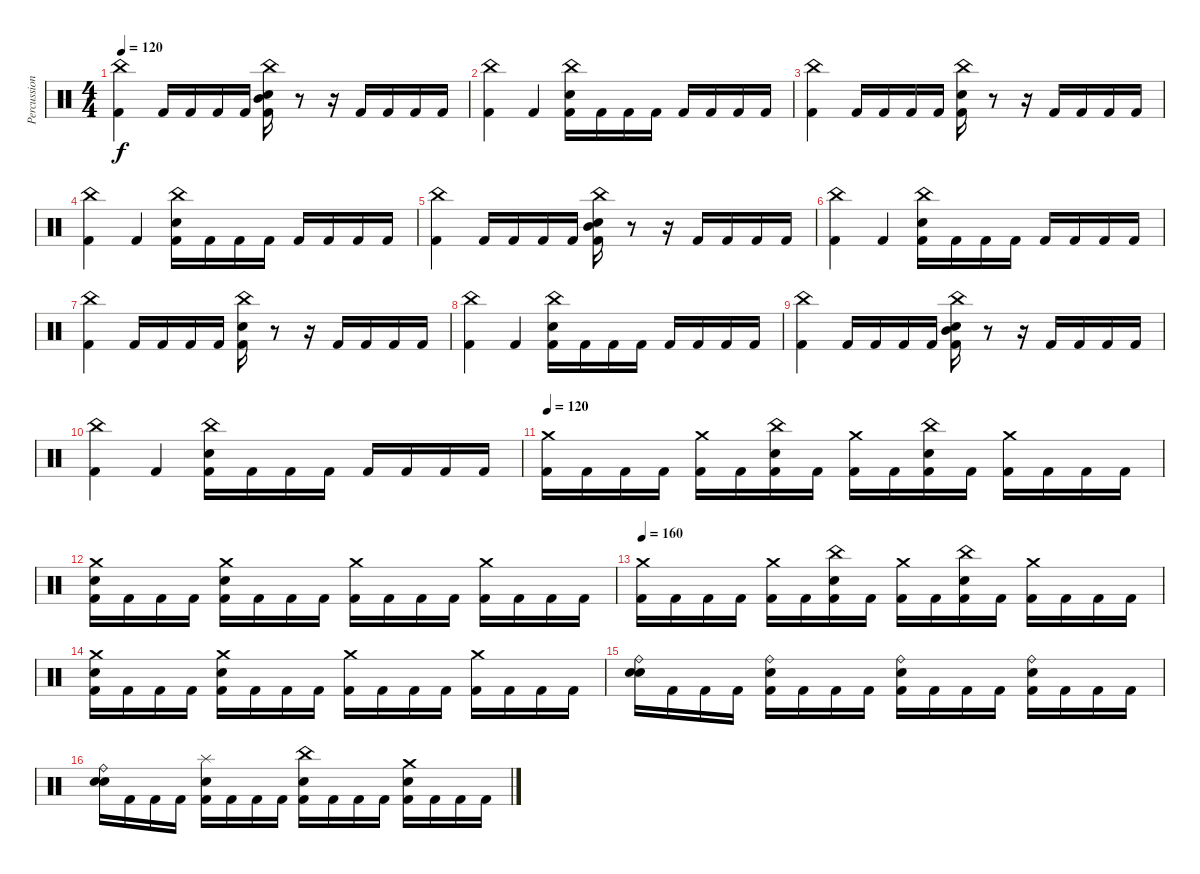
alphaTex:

\track ("Percussion" "Percussion") {instrument percussion}
\staff {score}
\articulation defaults
\ts (4 4)
\tempo 120
\clef neutral
\ks c
("China (hit)" "Kick (hit) 2").4{dy f} "Kick (hit) 2".16 "Kick (hit) 2".16 "Kick (hit) 2".16 "Kick (hit) 2".16 ("Mid Tom (hit)" "China (hit)" "Snare (hit) 2" "Kick (hit) 2").16 r.8 r.16 "Kick (hit) 2".16 "Kick (hit) 2".16 "Kick (hit) 2".16 "Kick (hit) 2".16 |
("China (hit)" "Kick (hit) 2").4 "Kick (hit) 2".4 ("China (hit)" "Snare (hit) 2" "Kick (hit) 2").16 "Kick (hit) 2".16 "Kick (hit) 2".16 "Kick (hit) 2".16 "Kick (hit) 2".16 "Kick (hit) 2".16 "Kick (hit) 2".16 "Kick (hit) 2".16 |
("China (hit)" "Kick (hit) 2").4 "Kick (hit) 2".16 "Kick (hit) 2".16 "Kick (hit) 2".16 "Kick (hit) 2".16 ("China (hit)" "Snare (hit) 2" "Kick (hit) 2").16 r.8 r.16 "Kick (hit) 2".16 "Kick (hit) 2".16 "Kick (hit) 2".16 "Kick (hit) 2".16 |
("China (hit)" "Kick (hit) 2").4 "Kick (hit) 2".4 ("China (hit)" "Snare (hit) 2" "Kick (hit) 2").16 "Kick (hit) 2".16 "Kick (hit) 2".16 "Kick (hit) 2".16 "Kick (hit) 2".16 "Kick (hit) 2".16 "Kick (hit) 2".16 "Kick (hit) 2".16 |
("China (hit)" "Kick (hit) 2").4 "Kick (hit) 2".16 "Kick (hit) 2".16 "Kick (hit) 2".16 "Kick (hit) 2".16 ("Mid Tom (hit)" "China (hit)" "Snare (hit) 2" "Kick (hit) 2").16 r.8 r.16 "Kick (hit) 2".16 "Kick (hit) 2".16 "Kick (hit) 2".16 "Kick (hit) 2".16 |
("China (hit)" "Kick (hit) 2").4 "Kick (hit) 2".4 ("China (hit)" "Snare (hit) 2" "Kick (hit) 2").16 "Kick (hit) 2".16 "Kick (hit) 2".16 "Kick (hit) 2".16 "Kick (hit) 2".16 "Kick (hit) 2".16 "Kick (hit) 2".16 "Kick (hit) 2".16 |
("China (hit)" "Kick (hit) 2").4 "Kick (hit) 2".16 "Kick (hit) 2".16 "Kick (hit) 2".16 "Kick (hit) 2".16 ("China (hit)" "Snare (hit) 2" "Kick (hit) 2").16 r.8 r.16 "Kick (hit) 2".16 "Kick (hit) 2".16 "Kick (hit) 2".16 "Kick (hit) 2".16 |
("China (hit)" "Kick (hit) 2").4 "Kick (hit) 2".4 ("China (hit)" "Snare (hit) 2" "Kick (hit) 2").16 "Kick (hit) 2".16 "Kick (hit) 2".16 "Kick (hit) 2".16 "Kick (hit) 2".16 "Kick (hit) 2".16 "Kick (hit) 2".16 "Kick (hit) 2".16 |
("China (hit)" "Kick (hit) 2").4 "Kick (hit) 2".16 "Kick (hit) 2".16 "Kick (hit) 2".16 "Kick (hit) 2".16 ("Mid Tom (hit)" "China (hit)" "Snare (hit) 2" "Kick (hit) 2").16 r.8 r.16 "Kick (hit) 2".16 "Kick (hit) 2".16 "Kick (hit) 2".16 "Kick (hit) 2".16 |
("China (hit)" "Kick (hit) 2").4 "Kick (hit) 2".4 ("China (hit)" "Snare (hit) 2" "Kick (hit) 2").16 "Kick (hit) 2".16 "Kick (hit) 2".16 "Kick (hit) 2".16 "Kick (hit) 2".16 "Kick (hit) 2".16 "Kick (hit) 2".16 "Kick (hit) 2".16 |
\tempo 160
\tempo 120
("Crash medium (hit)" "Kick (hit) 2").16 "Kick (hit) 2".16 "Kick (hit) 2".16 "Kick (hit) 2".16 ("Crash medium (hit)" "Kick (hit) 2").16 "Kick (hit) 2".16 ("China (hit)" "Snare (hit) 2" "Kick (hit) 2").16 "Kick (hit) 2".16 ("Crash medium (hit)" "Kick (hit) 2").16 "Kick (hit) 2".16 ("China (hit)" "Snare (hit) 2" "Kick (hit) 2").16 "Kick (hit) 2".16 ("Crash medium (hit)" "Kick (hit) 2").16 "Kick (hit) 2".16 "Kick (hit) 2".16 "Kick (hit) 2".16 |
("Crash medium (hit)" "Snare (hit) 2" "Kick (hit) 2").16 "Kick (hit) 2".16 "Kick (hit) 2".16 "Kick (hit) 2".16 ("Crash medium (hit)" "Snare (hit) 2" "Kick (hit) 2").16 "Kick (hit) 2".16 "Kick (hit) 2".16 "Kick (hit) 2".16 ("Crash medium (hit)" "Kick (hit) 2").16 "Kick (hit) 2".16 "Kick (hit) 2".16 "Kick (hit) 2".16 ("Crash medium (hit)" "Kick (hit) 2").16 "Kick (hit) 2".16 "Kick (hit) 2".16 "Kick (hit) 2".16 |
\tempo 160
("Crash medium (hit)" "Kick (hit) 2").16 "Kick (hit) 2".16 "Kick (hit) 2".16 "Kick (hit) 2".16 ("Crash medium (hit)" "Kick (hit) 2").16 "Kick (hit) 2".16 ("China (hit)" "Snare (hit) 2" "Kick (hit) 2").16 "Kick (hit) 2".16 ("Crash medium (hit)" "Kick (hit) 2").16 "Kick (hit) 2".16 ("China (hit)" "Snare (hit) 2" "Kick (hit) 2").16 "Kick (hit) 2".16 ("Crash medium (hit)" "Kick (hit) 2").16 "Kick (hit) 2".16 "Kick (hit) 2".16 "Kick (hit) 2".16 |
("Crash medium (hit)" "Snare (hit) 2" "Kick (hit) 2").16 "Kick (hit) 2".16 "Kick (hit) 2".16 "Kick (hit) 2".16 ("Crash medium (hit)" "Snare (hit) 2" "Kick (hit) 2").16 "Kick (hit) 2".16 "Kick (hit) 2".16 "Kick (hit) 2".16 ("Crash medium (hit)" "Kick (hit) 2").16 "Kick (hit) 2".16 "Kick (hit) 2".16 "Kick (hit) 2".16 ("Crash medium (hit)" "Kick (hit) 2").16 "Kick (hit) 2".16 "Kick (hit) 2".16 "Kick (hit) 2".16 |
("Ride (bell)" "Snare (hit) 2" "Snare (hit) 2").16 "Kick (hit) 2".16 "Kick (hit) 2".16 "Kick (hit) 2".16 ("Ride (bell)" "Snare (hit) 2" "Kick (hit) 2").16 "Kick (hit) 2".16 "Kick (hit) 2".16 "Kick (hit) 2".16 ("Ride (bell)" "Snare (hit) 2" "Kick (hit) 2").16 "Kick (hit) 2".16 "Kick (hit) 2".16 "Kick (hit) 2".16 ("Ride (bell)" "Snare (hit) 2" "Kick (hit) 2").16 "Kick (hit) 2".16 "Kick (hit) 2".16 "Kick (hit) 2".16 |
("Ride (bell)" "Snare (hit) 2" "Snare (hit) 2").16 "Kick (hit) 2".16 "Kick (hit) 2".16 "Kick (hit) 2".16 ("Splash (hit)" "Snare (hit) 2" "Kick (hit) 2").16 "Kick (hit) 2".16 "Kick (hit) 2".16 "Kick (hit) 2".16 ("China (hit)" "Snare (hit) 2" "Kick (hit) 2").16 "Kick (hit) 2".16 "Kick (hit) 2".16 "Kick (hit) 2".16 ("Crash medium (hit)" "Snare (hit) 2" "Kick (hit) 2").16 "Kick (hit) 2".16 "Kick (hit) 2".16 "Kick (hit) 2".16
